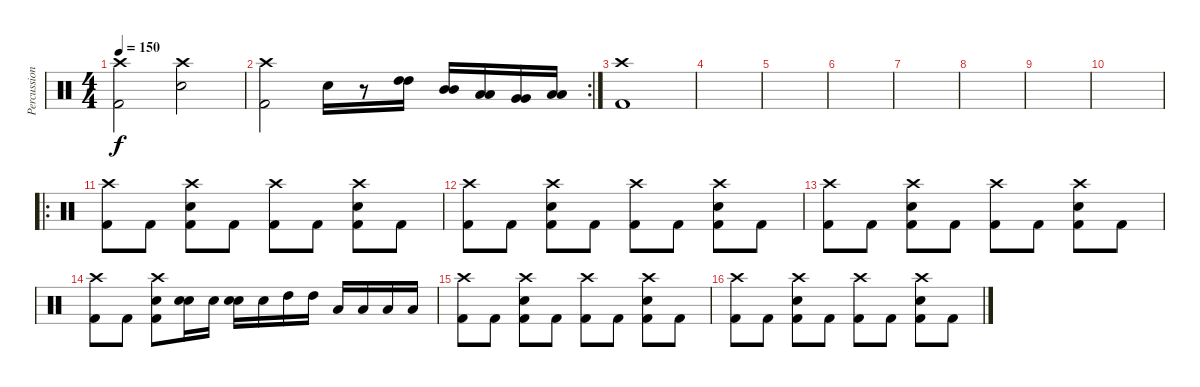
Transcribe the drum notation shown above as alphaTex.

\track ("Percussion" "Percussion") {instrument percussion}
\staff {score}
\articulation defaults
\ts (4 4)
\tempo 150
\clef neutral
\ks c
("Crash high (hit)" "Kick (hit) 2").2{dy f} ("Crash high (hit)" "Electric Snare (hit)").2 |
\rc 2
("Crash high (hit)" "Kick (hit) 2").2 "Electric Snare (hit)".16 r.8 ("High Tom (hit)" "High Tom (hit)").16 ("Mid Tom (hit)" "Mid Tom (hit)").16 ("Low Tom (hit)" "Low Tom (hit)").16 ("Very Low Tom (hit)" "Very Low Tom (hit)").16 ("Low Floor Tom (hit)" "Low Floor Tom (hit)").16 |
("Crash high (hit)" "Kick (hit) 2").1 |
|
|
|
|
|
|
|
\ro
("Crash high (hit)" "Kick (hit) 2").8 "Kick (hit) 2".8 ("Crash high (hit)" "Electric Snare (hit)" "Kick (hit) 2").8 "Kick (hit) 2".8 ("Crash high (hit)" "Kick (hit) 2").8 "Kick (hit) 2".8 ("Crash high (hit)" "Electric Snare (hit)" "Kick (hit) 2").8 "Kick (hit) 2".8 |
("Crash high (hit)" "Kick (hit) 2").8 "Kick (hit) 2".8 ("Crash high (hit)" "Electric Snare (hit)" "Kick (hit) 2").8 "Kick (hit) 2".8 ("Crash high (hit)" "Kick (hit) 2").8 "Kick (hit) 2".8 ("Crash high (hit)" "Electric Snare (hit)" "Kick (hit) 2").8 "Kick (hit) 2".8 |
("Crash high (hit)" "Kick (hit) 2").8 "Kick (hit) 2".8 ("Crash high (hit)" "Electric Snare (hit)" "Kick (hit) 2").8 "Kick (hit) 2".8 ("Crash high (hit)" "Kick (hit) 2").8 "Kick (hit) 2".8 ("Crash high (hit)" "Electric Snare (hit)" "Kick (hit) 2").8 "Kick (hit) 2".8 |
("Crash high (hit)" "Kick (hit) 2").8 "Kick (hit) 2".8 ("Crash high (hit)" "Electric Snare (hit)" "Kick (hit) 2").8 ("Snare (hit) 2" "Electric Snare (hit)").16 "Electric Snare (hit)".16 ("Snare (hit) 2" "Electric Snare (hit)").16 "Electric Snare (hit)".16 "High Tom (hit)".16 "High Tom (hit)".16 "Low Tom (hit)".16 "Low Tom (hit)".16 "Low Floor Tom (hit)".16 "Low Floor Tom (hit)".16 |
("Crash high (hit)" "Kick (hit) 2").8 "Kick (hit) 2".8 ("Crash high (hit)" "Electric Snare (hit)" "Kick (hit) 2").8 "Kick (hit) 2".8 ("Crash high (hit)" "Kick (hit) 2").8 "Kick (hit) 2".8 ("Crash high (hit)" "Electric Snare (hit)" "Kick (hit) 2").8 "Kick (hit) 2".8 |
("Crash high (hit)" "Kick (hit) 2").8 "Kick (hit) 2".8 ("Crash high (hit)" "Electric Snare (hit)" "Kick (hit) 2").8 "Kick (hit) 2".8 ("Crash high (hit)" "Kick (hit) 2").8 "Kick (hit) 2".8 ("Crash high (hit)" "Electric Snare (hit)" "Kick (hit) 2").8 "Kick (hit) 2".8
